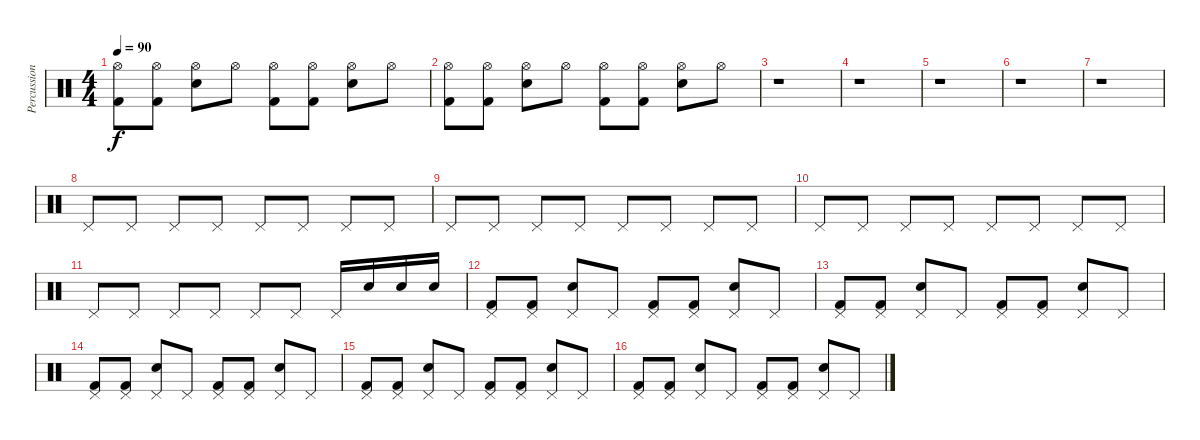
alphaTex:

\track ("Percussions" "Percussion") {instrument percussion}
\staff {score}
\articulation defaults
\ts (4 4)
\tempo 90
\clef neutral
\ks c
("Hi-Hat (open)" "Kick (hit) 2").8{dy f} ("Hi-Hat (open)" "Kick (hit) 2").8 ("Hi-Hat (open)" "Electric Snare (hit)").8 "Hi-Hat (open)".8 ("Hi-Hat (open)" "Kick (hit) 2").8 ("Hi-Hat (open)" "Kick (hit) 2").8 ("Hi-Hat (open)" "Electric Snare (hit)").8 "Hi-Hat (open)".8 |
("Hi-Hat (open)" "Kick (hit) 2").8 ("Hi-Hat (open)" "Kick (hit) 2").8 ("Hi-Hat (open)" "Electric Snare (hit)").8 "Hi-Hat (open)".8 ("Hi-Hat (open)" "Kick (hit) 2").8 ("Hi-Hat (open)" "Kick (hit) 2").8 ("Hi-Hat (open)" "Electric Snare (hit)").8 "Hi-Hat (open)".8 |
r.1 |
r.1 |
r.1 |
r.1 |
r.1 |
"Pedal Hi-Hat (hit)".8 "Pedal Hi-Hat (hit)".8 "Pedal Hi-Hat (hit)".8 "Pedal Hi-Hat (hit)".8 "Pedal Hi-Hat (hit)".8 "Pedal Hi-Hat (hit)".8 "Pedal Hi-Hat (hit)".8 "Pedal Hi-Hat (hit)".8 |
"Pedal Hi-Hat (hit)".8 "Pedal Hi-Hat (hit)".8 "Pedal Hi-Hat (hit)".8 "Pedal Hi-Hat (hit)".8 "Pedal Hi-Hat (hit)".8 "Pedal Hi-Hat (hit)".8 "Pedal Hi-Hat (hit)".8 "Pedal Hi-Hat (hit)".8 |
"Pedal Hi-Hat (hit)".8 "Pedal Hi-Hat (hit)".8 "Pedal Hi-Hat (hit)".8 "Pedal Hi-Hat (hit)".8 "Pedal Hi-Hat (hit)".8 "Pedal Hi-Hat (hit)".8 "Pedal Hi-Hat (hit)".8 "Pedal Hi-Hat (hit)".8 |
"Pedal Hi-Hat (hit)".8 "Pedal Hi-Hat (hit)".8 "Pedal Hi-Hat (hit)".8 "Pedal Hi-Hat (hit)".8 "Pedal Hi-Hat (hit)".8 "Pedal Hi-Hat (hit)".8 "Pedal Hi-Hat (hit)".16 "Electric Snare (hit)".16 "Electric Snare (hit)".16 "Electric Snare (hit)".16 |
("Pedal Hi-Hat (hit)" "Kick (hit) 2").8 ("Pedal Hi-Hat (hit)" "Kick (hit) 2").8 ("Pedal Hi-Hat (hit)" "Electric Snare (hit)").8 "Pedal Hi-Hat (hit)".8 ("Pedal Hi-Hat (hit)" "Kick (hit) 2").8 ("Pedal Hi-Hat (hit)" "Kick (hit) 2").8 ("Pedal Hi-Hat (hit)" "Electric Snare (hit)").8 "Pedal Hi-Hat (hit)".8 |
("Pedal Hi-Hat (hit)" "Kick (hit) 2").8 ("Pedal Hi-Hat (hit)" "Kick (hit) 2").8 ("Pedal Hi-Hat (hit)" "Electric Snare (hit)").8 "Pedal Hi-Hat (hit)".8 ("Pedal Hi-Hat (hit)" "Kick (hit) 2").8 ("Pedal Hi-Hat (hit)" "Kick (hit) 2").8 ("Pedal Hi-Hat (hit)" "Electric Snare (hit)").8 "Pedal Hi-Hat (hit)".8 |
("Pedal Hi-Hat (hit)" "Kick (hit) 2").8 ("Pedal Hi-Hat (hit)" "Kick (hit) 2").8 ("Pedal Hi-Hat (hit)" "Electric Snare (hit)").8 "Pedal Hi-Hat (hit)".8 ("Pedal Hi-Hat (hit)" "Kick (hit) 2").8 ("Pedal Hi-Hat (hit)" "Kick (hit) 2").8 ("Pedal Hi-Hat (hit)" "Electric Snare (hit)").8 "Pedal Hi-Hat (hit)".8 |
("Pedal Hi-Hat (hit)" "Kick (hit) 2").8 ("Pedal Hi-Hat (hit)" "Kick (hit) 2").8 ("Pedal Hi-Hat (hit)" "Electric Snare (hit)").8 "Pedal Hi-Hat (hit)".8 ("Pedal Hi-Hat (hit)" "Kick (hit) 2").8 ("Pedal Hi-Hat (hit)" "Kick (hit) 2").8 ("Pedal Hi-Hat (hit)" "Electric Snare (hit)").8 "Pedal Hi-Hat (hit)".8 |
("Pedal Hi-Hat (hit)" "Kick (hit) 2").8 ("Pedal Hi-Hat (hit)" "Kick (hit) 2").8 ("Pedal Hi-Hat (hit)" "Electric Snare (hit)").8 "Pedal Hi-Hat (hit)".8 ("Pedal Hi-Hat (hit)" "Kick (hit) 2").8 ("Pedal Hi-Hat (hit)" "Kick (hit) 2").8 ("Pedal Hi-Hat (hit)" "Electric Snare (hit)").8 "Pedal Hi-Hat (hit)".8
